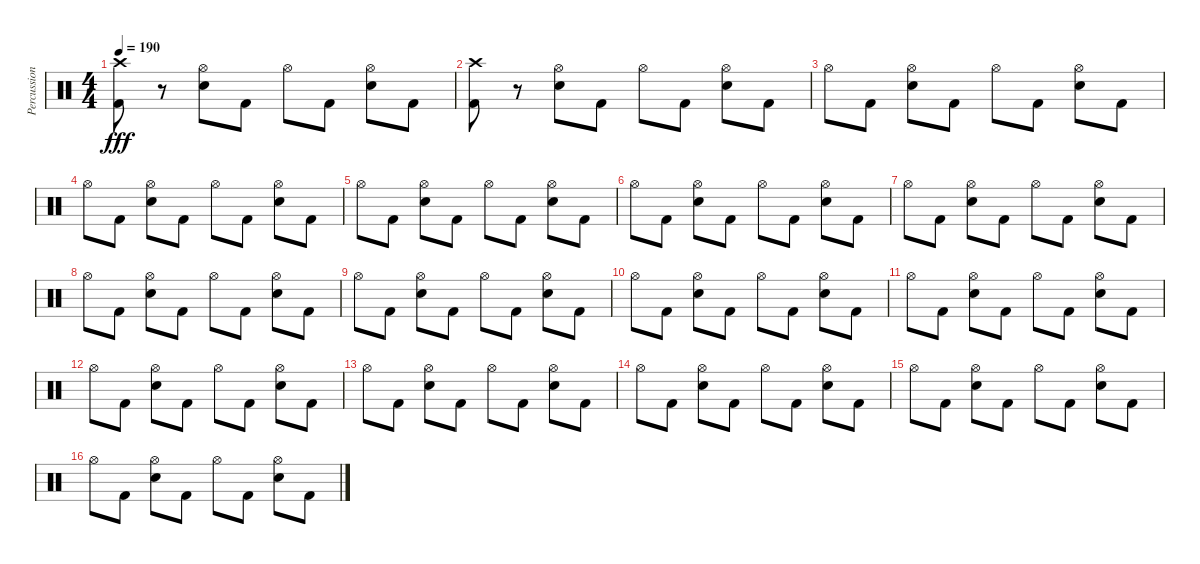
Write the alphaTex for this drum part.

\track ("Percussion" "Percussion") {instrument percussion}
\staff {score}
\articulation defaults
\ts (4 4)
\tempo 190
\clef neutral
\ks c
("Crash high (hit)" "Kick (hit) 2").8{dy fff} r.8 ("Hi-Hat (open)" "Electric Snare (hit)").8 "Kick (hit) 2".8 "Hi-Hat (open)".8 "Kick (hit) 2".8 ("Hi-Hat (open)" "Electric Snare (hit)").8 "Kick (hit) 2".8 |
("Crash high (hit)" "Kick (hit) 2").8 r.8 ("Hi-Hat (open)" "Electric Snare (hit)").8 "Kick (hit) 2".8 "Hi-Hat (open)".8 "Kick (hit) 2".8 ("Hi-Hat (open)" "Electric Snare (hit)").8 "Kick (hit) 2".8 |
"Hi-Hat (open)".8 "Kick (hit) 2".8 ("Hi-Hat (open)" "Electric Snare (hit)").8 "Kick (hit) 2".8 "Hi-Hat (open)".8 "Kick (hit) 2".8 ("Hi-Hat (open)" "Electric Snare (hit)").8 "Kick (hit) 2".8 |
"Hi-Hat (open)".8 "Kick (hit) 2".8 ("Hi-Hat (open)" "Electric Snare (hit)").8 "Kick (hit) 2".8 "Hi-Hat (open)".8 "Kick (hit) 2".8 ("Hi-Hat (open)" "Electric Snare (hit)").8 "Kick (hit) 2".8 |
"Hi-Hat (open)".8 "Kick (hit) 2".8 ("Hi-Hat (open)" "Electric Snare (hit)").8 "Kick (hit) 2".8 "Hi-Hat (open)".8 "Kick (hit) 2".8 ("Hi-Hat (open)" "Electric Snare (hit)").8 "Kick (hit) 2".8 |
"Hi-Hat (open)".8 "Kick (hit) 2".8 ("Hi-Hat (open)" "Electric Snare (hit)").8 "Kick (hit) 2".8 "Hi-Hat (open)".8 "Kick (hit) 2".8 ("Hi-Hat (open)" "Electric Snare (hit)").8 "Kick (hit) 2".8 |
"Hi-Hat (open)".8 "Kick (hit) 2".8 ("Hi-Hat (open)" "Electric Snare (hit)").8 "Kick (hit) 2".8 "Hi-Hat (open)".8 "Kick (hit) 2".8 ("Hi-Hat (open)" "Electric Snare (hit)").8 "Kick (hit) 2".8 |
"Hi-Hat (open)".8 "Kick (hit) 2".8 ("Hi-Hat (open)" "Electric Snare (hit)").8 "Kick (hit) 2".8 "Hi-Hat (open)".8 "Kick (hit) 2".8 ("Hi-Hat (open)" "Electric Snare (hit)").8 "Kick (hit) 2".8 |
"Hi-Hat (open)".8 "Kick (hit) 2".8 ("Hi-Hat (open)" "Electric Snare (hit)").8 "Kick (hit) 2".8 "Hi-Hat (open)".8 "Kick (hit) 2".8 ("Hi-Hat (open)" "Electric Snare (hit)").8 "Kick (hit) 2".8 |
"Hi-Hat (open)".8 "Kick (hit) 2".8 ("Hi-Hat (open)" "Electric Snare (hit)").8 "Kick (hit) 2".8 "Hi-Hat (open)".8 "Kick (hit) 2".8 ("Hi-Hat (open)" "Electric Snare (hit)").8 "Kick (hit) 2".8 |
"Hi-Hat (open)".8 "Kick (hit) 2".8 ("Hi-Hat (open)" "Electric Snare (hit)").8 "Kick (hit) 2".8 "Hi-Hat (open)".8 "Kick (hit) 2".8 ("Hi-Hat (open)" "Electric Snare (hit)").8 "Kick (hit) 2".8 |
"Hi-Hat (open)".8 "Kick (hit) 2".8 ("Hi-Hat (open)" "Electric Snare (hit)").8 "Kick (hit) 2".8 "Hi-Hat (open)".8 "Kick (hit) 2".8 ("Hi-Hat (open)" "Electric Snare (hit)").8 "Kick (hit) 2".8 |
"Hi-Hat (open)".8 "Kick (hit) 2".8 ("Hi-Hat (open)" "Electric Snare (hit)").8 "Kick (hit) 2".8 "Hi-Hat (open)".8 "Kick (hit) 2".8 ("Hi-Hat (open)" "Electric Snare (hit)").8 "Kick (hit) 2".8 |
"Hi-Hat (open)".8 "Kick (hit) 2".8 ("Hi-Hat (open)" "Electric Snare (hit)").8 "Kick (hit) 2".8 "Hi-Hat (open)".8 "Kick (hit) 2".8 ("Hi-Hat (open)" "Electric Snare (hit)").8 "Kick (hit) 2".8 |
"Hi-Hat (open)".8 "Kick (hit) 2".8 ("Hi-Hat (open)" "Electric Snare (hit)").8 "Kick (hit) 2".8 "Hi-Hat (open)".8 "Kick (hit) 2".8 ("Hi-Hat (open)" "Electric Snare (hit)").8 "Kick (hit) 2".8 |
"Hi-Hat (open)".8 "Kick (hit) 2".8 ("Hi-Hat (open)" "Electric Snare (hit)").8 "Kick (hit) 2".8 "Hi-Hat (open)".8 "Kick (hit) 2".8 ("Hi-Hat (open)" "Electric Snare (hit)").8 "Kick (hit) 2".8
